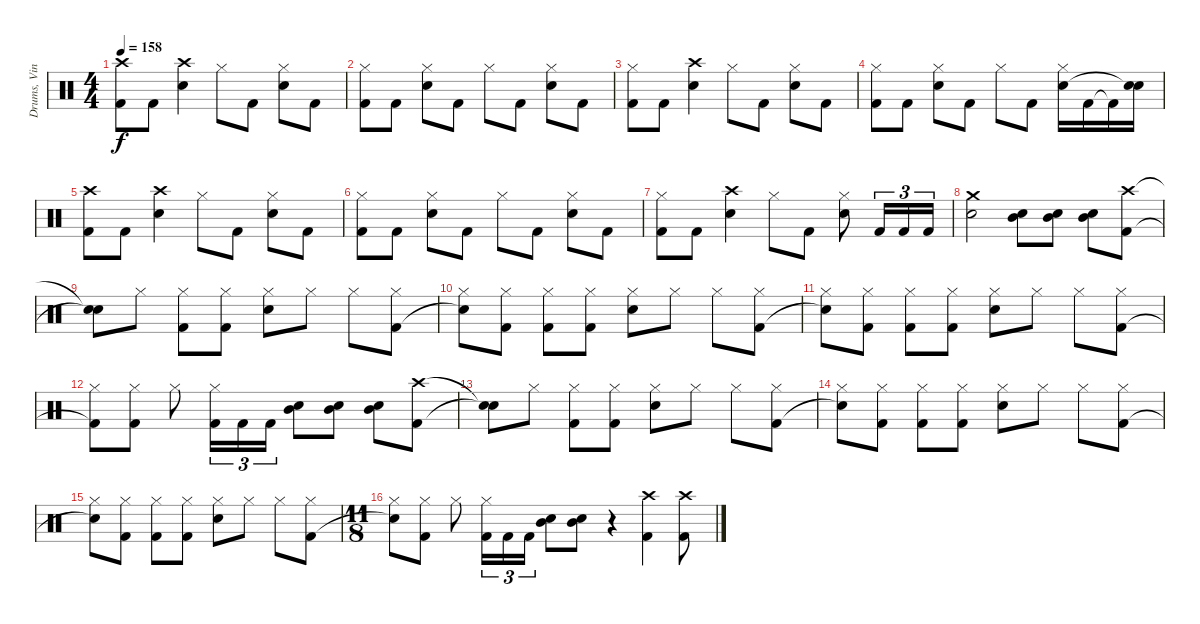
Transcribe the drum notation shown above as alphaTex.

\track ("Drums, Vinnie" "Drums, Vin") {instrument percussion}
\staff {score}
\articulation defaults
\ts (4 4)
\tempo 158
\clef neutral
\ks c
("Crash high (hit)" "Kick (hit) 2").8{dy f} "Kick (hit) 2".8 ("Crash high (hit)" "Electric Snare (hit)").4 "Hi-Hat (closed)".8 "Kick (hit) 2".8 ("Hi-Hat (closed)" "Electric Snare (hit)").8 "Kick (hit) 2".8 |
("Hi-Hat (closed)" "Kick (hit) 2").8 "Kick (hit) 2".8 ("Hi-Hat (closed)" "Electric Snare (hit)").8 "Kick (hit) 2".8 "Hi-Hat (closed)".8 "Kick (hit) 2".8 ("Hi-Hat (closed)" "Electric Snare (hit)").8 "Kick (hit) 2".8 |
("Hi-Hat (closed)" "Kick (hit) 2").8 "Kick (hit) 2".8 ("Crash high (hit)" "Electric Snare (hit)").4 "Hi-Hat (closed)".8 "Kick (hit) 2".8 ("Hi-Hat (closed)" "Electric Snare (hit)").8 "Kick (hit) 2".8 |
("Hi-Hat (closed)" "Kick (hit) 2").8 "Kick (hit) 2".8 ("Hi-Hat (closed)" "Electric Snare (hit)").8 "Kick (hit) 2".8 "Hi-Hat (closed)".8 "Kick (hit) 2".8 ("Hi-Hat (closed)" "Electric Snare (hit)").16 "Kick (hit) 2".16 "Kick (hit) 2"{t}.16 ("Electric Snare (hit)" "Snare (hit)"{t}).16 |
("Crash high (hit)" "Kick (hit) 2").8 "Kick (hit) 2".8 ("Crash high (hit)" "Electric Snare (hit)").4 "Hi-Hat (closed)".8 "Kick (hit) 2".8 ("Hi-Hat (closed)" "Electric Snare (hit)").8 "Kick (hit) 2".8 |
("Hi-Hat (closed)" "Kick (hit) 2").8 "Kick (hit) 2".8 ("Hi-Hat (closed)" "Electric Snare (hit)").8 "Kick (hit) 2".8 "Hi-Hat (closed)".8 "Kick (hit) 2".8 ("Hi-Hat (closed)" "Electric Snare (hit)").8 "Kick (hit) 2".8 |
("Hi-Hat (closed)" "Kick (hit) 2").8 "Kick (hit) 2".8 ("Crash high (hit)" "Electric Snare (hit)").4 "Hi-Hat (closed)".8 "Kick (hit) 2".8 ("Hi-Hat (closed)" "Electric Snare (hit)").8 "Kick (hit) 2".16{tu (3 2)} "Kick (hit) 2".16{tu (3 2)} "Kick (hit) 2".16{tu (3 2)} |
("Crash medium (hit)" "Electric Snare (hit)").2 ("Electric Snare (hit)" "Mid Tom (hit)").8 ("Electric Snare (hit)" "Mid Tom (hit)").8 ("Electric Snare (hit)" "Mid Tom (hit)").8 ("Crash high (hit)" "Kick (hit) 2").8 |
("Snare (hit)"{t} "Snare (hit)"{t}).8 "Hi-Hat (closed)".8 ("Hi-Hat (closed)" "Kick (hit) 2").8 ("Hi-Hat (closed)" "Kick (hit) 2").8 ("Hi-Hat (closed)" "Electric Snare (hit)").8 "Hi-Hat (closed)".8 "Hi-Hat (closed)".8 ("Hi-Hat (closed)" "Kick (hit) 2").8 |
("Hi-Hat (closed)" "Snare (hit)"{t}).8 ("Hi-Hat (closed)" "Kick (hit) 2").8 ("Hi-Hat (closed)" "Kick (hit) 2").8 ("Hi-Hat (closed)" "Kick (hit) 2").8 ("Hi-Hat (closed)" "Electric Snare (hit)").8 "Hi-Hat (closed)".8 "Hi-Hat (closed)".8 ("Hi-Hat (closed)" "Kick (hit) 2").8 |
("Hi-Hat (closed)" "Snare (hit)"{t}).8 ("Hi-Hat (closed)" "Kick (hit) 2").8 ("Hi-Hat (closed)" "Kick (hit) 2").8 ("Hi-Hat (closed)" "Kick (hit) 2").8 ("Hi-Hat (closed)" "Electric Snare (hit)").8 "Hi-Hat (closed)".8 "Hi-Hat (closed)".8 ("Hi-Hat (closed)" "Kick (hit) 2").8 |
("Hi-Hat (closed)" "Kick (hit) 2"{t}).8 ("Hi-Hat (closed)" "Kick (hit) 2").8 "Hi-Hat (closed)".8 ("Hi-Hat (closed)" "Kick (hit) 2").16{tu (3 2)} "Kick (hit) 2".16{tu (3 2)} "Kick (hit) 2".16{tu (3 2)} ("Electric Snare (hit)" "Mid Tom (hit)").8 ("Electric Snare (hit)" "Mid Tom (hit)").8 ("Electric Snare (hit)" "Mid Tom (hit)").8 ("Crash high (hit)" "Kick (hit) 2").8 |
("Snare (hit)"{t} "Snare (hit)"{t}).8 "Hi-Hat (closed)".8 ("Hi-Hat (closed)" "Kick (hit) 2").8 ("Hi-Hat (closed)" "Kick (hit) 2").8 ("Hi-Hat (closed)" "Electric Snare (hit)").8 "Hi-Hat (closed)".8 "Hi-Hat (closed)".8 ("Hi-Hat (closed)" "Kick (hit) 2").8 |
("Hi-Hat (closed)" "Snare (hit)"{t}).8 ("Hi-Hat (closed)" "Kick (hit) 2").8 ("Hi-Hat (closed)" "Kick (hit) 2").8 ("Hi-Hat (closed)" "Kick (hit) 2").8 ("Hi-Hat (closed)" "Electric Snare (hit)").8 "Hi-Hat (closed)".8 "Hi-Hat (closed)".8 ("Hi-Hat (closed)" "Kick (hit) 2").8 |
("Hi-Hat (closed)" "Snare (hit)"{t}).8 ("Hi-Hat (closed)" "Kick (hit) 2").8 ("Hi-Hat (closed)" "Kick (hit) 2").8 ("Hi-Hat (closed)" "Kick (hit) 2").8 ("Hi-Hat (closed)" "Electric Snare (hit)").8 "Hi-Hat (closed)".8 "Hi-Hat (closed)".8 ("Hi-Hat (closed)" "Kick (hit) 2").8 |
\ts (11 8)
("Hi-Hat (closed)" "Snare (hit)"{t}).8 ("Hi-Hat (closed)" "Kick (hit) 2").8 "Hi-Hat (closed)".8 ("Hi-Hat (closed)" "Kick (hit) 2").16{tu (3 2)} "Kick (hit) 2".16{tu (3 2)} "Kick (hit) 2".16{tu (3 2)} ("Electric Snare (hit)" "Mid Tom (hit)").8 ("Electric Snare (hit)" "Mid Tom (hit)").8 r.4 ("Crash high (hit)" "Kick (hit) 2").4 ("Crash high (hit)" "Kick (hit) 2").8
